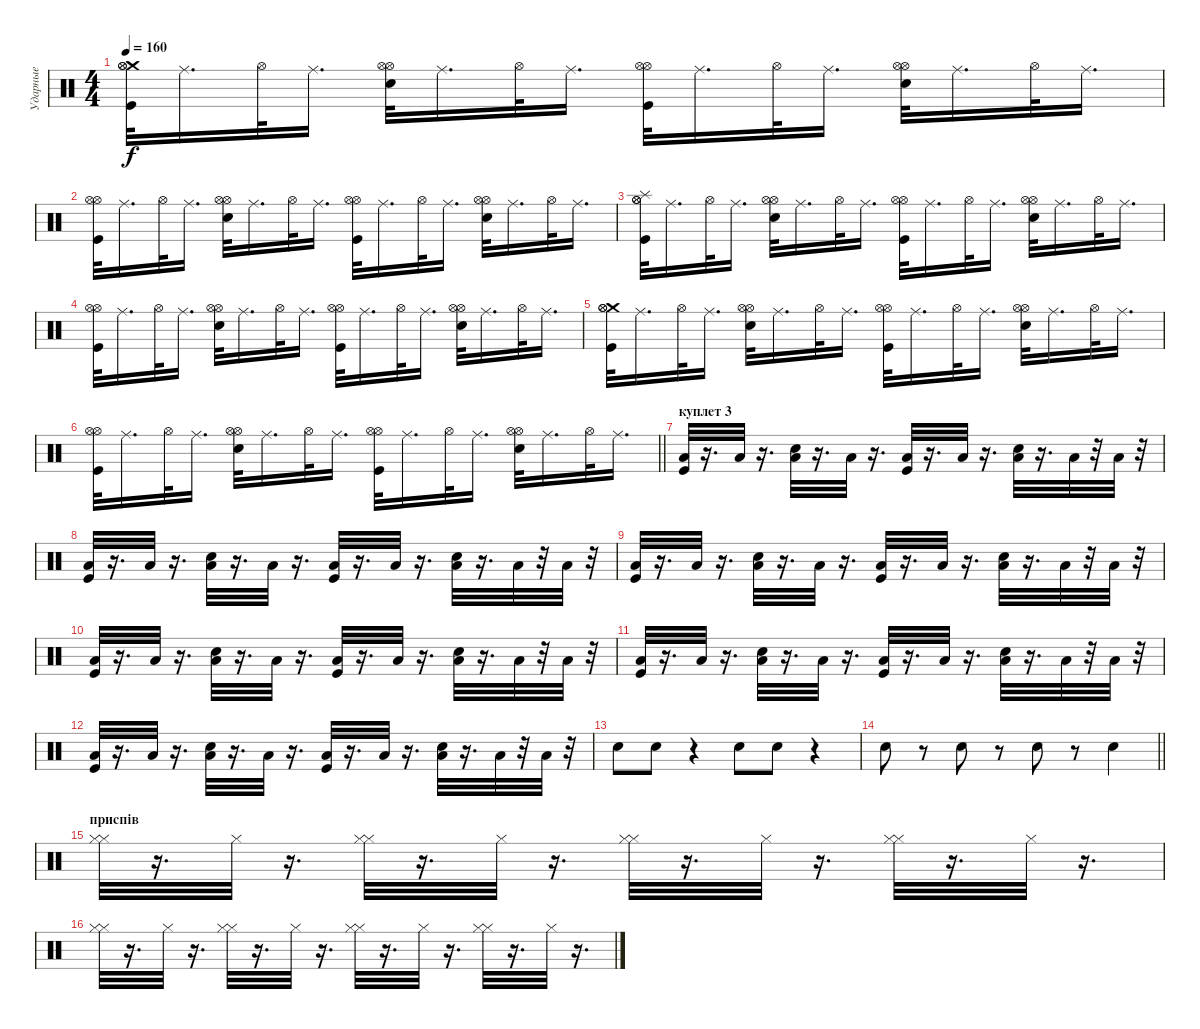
\track ("Ударные" "Ударные") {instrument percussion}
\staff {score}
\articulation defaults
\ts (4 4)
\tempo 160
\clef neutral
\ks c
("Crash medium (hit)" "Hi-Hat (open)" "Kick (hit)" "Hi-Hat (open)").32{dy f} "Ride (middle)".16{d} "Hi-Hat (open)".32 "Ride (middle)".16{d} ("Hi-Hat (open)" "Snare (hit) 2" "Hi-Hat (open)").32 "Ride (middle)".16{d} "Hi-Hat (open)".32 "Ride (middle)".16{d} ("Kick (hit)" "Hi-Hat (open)" "Hi-Hat (open)").32 "Ride (middle)".16{d} "Hi-Hat (open)".32 "Ride (middle)".16{d} ("Hi-Hat (open)" "Hi-Hat (open)" "Snare (hit) 2").32 "Ride (middle)".16{d} "Hi-Hat (open)".32 "Ride (middle)".16{d} |
("Kick (hit)" "Hi-Hat (open)" "Hi-Hat (open)").32 "Ride (middle)".16{d} "Hi-Hat (open)".32 "Ride (middle)".16{d} ("Snare (hit) 2" "Hi-Hat (open)" "Hi-Hat (open)").32 "Ride (middle)".16{d} "Hi-Hat (open)".32 "Ride (middle)".16{d} ("Kick (hit)" "Hi-Hat (open)" "Hi-Hat (open)").32 "Ride (middle)".16{d} "Hi-Hat (open)".32 "Ride (middle)".16{d} ("Hi-Hat (open)" "Snare (hit) 2" "Hi-Hat (open)").32 "Ride (middle)".16{d} "Hi-Hat (open)".32 "Ride (middle)".16{d} |
("Splash (hit)" "Hi-Hat (open)" "Kick (hit)" "Hi-Hat (open)").32 "Ride (middle)".16{d} "Hi-Hat (open)".32 "Ride (middle)".16{d} ("Hi-Hat (open)" "Hi-Hat (open)" "Snare (hit) 2").32 "Ride (middle)".16{d} "Hi-Hat (open)".32 "Ride (middle)".16{d} ("Hi-Hat (open)" "Hi-Hat (open)" "Kick (hit)").32 "Ride (middle)".16{d} "Hi-Hat (open)".32 "Ride (middle)".16{d} ("Snare (hit) 2" "Hi-Hat (open)" "Hi-Hat (open)").32 "Ride (middle)".16{d} "Hi-Hat (open)".32 "Ride (middle)".16{d} |
("Kick (hit)" "Hi-Hat (open)" "Hi-Hat (open)").32 "Ride (middle)".16{d} "Hi-Hat (open)".32 "Ride (middle)".16{d} ("Snare (hit) 2" "Hi-Hat (open)" "Hi-Hat (open)").32 "Ride (middle)".16{d} "Hi-Hat (open)".32 "Ride (middle)".16{d} ("Hi-Hat (open)" "Kick (hit)" "Hi-Hat (open)").32 "Ride (middle)".16{d} "Hi-Hat (open)".32 "Ride (middle)".16{d} ("Hi-Hat (open)" "Snare (hit) 2" "Hi-Hat (open)").32 "Ride (middle)".16{d} "Hi-Hat (open)".32 "Ride (middle)".16{d} |
("Crash medium (hit)" "Kick (hit)" "Hi-Hat (open)" "Hi-Hat (open)").32 "Ride (middle)".16{d} "Hi-Hat (open)".32 "Ride (middle)".16{d} ("Hi-Hat (open)" "Hi-Hat (open)" "Snare (hit) 2").32 "Ride (middle)".16{d} "Hi-Hat (open)".32 "Ride (middle)".16{d} ("Kick (hit)" "Hi-Hat (open)" "Hi-Hat (open)").32 "Ride (middle)".16{d} "Hi-Hat (open)".32 "Ride (middle)".16{d} ("Snare (hit) 2" "Hi-Hat (open)" "Hi-Hat (open)").32 "Ride (middle)".16{d} "Hi-Hat (open)".32 "Ride (middle)".16{d} |
\barLineRight lightlight
("Kick (hit)" "Hi-Hat (open)" "Hi-Hat (open)").32 "Ride (middle)".16{d} "Hi-Hat (open)".32 "Ride (middle)".16{d} ("Hi-Hat (open)" "Snare (hit) 2" "Hi-Hat (open)").32 "Ride (middle)".16{d} "Hi-Hat (open)".32 "Ride (middle)".16{d} ("Kick (hit)" "Hi-Hat (open)" "Hi-Hat (open)").32 "Ride (middle)".16{d} "Hi-Hat (open)".32 "Ride (middle)".16{d} ("Snare (hit) 2" "Hi-Hat (open)" "Hi-Hat (open)").32 "Ride (middle)".16{d} "Hi-Hat (open)".32 "Ride (middle)".16{d} |
\section ("" "куплет 3")
("Kick (hit)" "Low Floor Tom (hit)").32 r.16{d} "Low Floor Tom (hit)".32 r.16{d} ("Low Floor Tom (hit)" "Snare (hit) 2").32 r.16{d} "Low Floor Tom (hit)".32 r.16{d} ("Kick (hit)" "Low Floor Tom (hit)").32 r.16{d} "Low Floor Tom (hit)".32 r.16{d} ("Low Floor Tom (hit)" "Snare (hit) 2").32 r.16{d} "Low Floor Tom (hit)".32 r.32 "Low Floor Tom (hit)".32 r.32 |
("Kick (hit)" "Low Floor Tom (hit)").32 r.16{d} "Low Floor Tom (hit)".32 r.16{d} ("Low Floor Tom (hit)" "Snare (hit) 2").32 r.16{d} "Low Floor Tom (hit)".32 r.16{d} ("Low Floor Tom (hit)" "Kick (hit)").32 r.16{d} "Low Floor Tom (hit)".32 r.16{d} ("Snare (hit) 2" "Low Floor Tom (hit)").32 r.16{d} "Low Floor Tom (hit)".32 r.32 "Low Floor Tom (hit)".32 r.32 |
("Kick (hit)" "Low Floor Tom (hit)").32 r.16{d} "Low Floor Tom (hit)".32 r.16{d} ("Low Floor Tom (hit)" "Snare (hit) 2").32 r.16{d} "Low Floor Tom (hit)".32 r.16{d} ("Kick (hit)" "Low Floor Tom (hit)").32 r.16{d} "Low Floor Tom (hit)".32 r.16{d} ("Low Floor Tom (hit)" "Snare (hit) 2").32 r.16{d} "Low Floor Tom (hit)".32 r.32 "Low Floor Tom (hit)".32 r.32 |
("Kick (hit)" "Low Floor Tom (hit)").32 r.16{d} "Low Floor Tom (hit)".32 r.16{d} ("Low Floor Tom (hit)" "Snare (hit) 2").32 r.16{d} "Low Floor Tom (hit)".32 r.16{d} ("Low Floor Tom (hit)" "Kick (hit)").32 r.16{d} "Low Floor Tom (hit)".32 r.16{d} ("Snare (hit) 2" "Low Floor Tom (hit)").32 r.16{d} "Low Floor Tom (hit)".32 r.32 "Low Floor Tom (hit)".32 r.32 |
("Kick (hit)" "Low Floor Tom (hit)").32 r.16{d} "Low Floor Tom (hit)".32 r.16{d} ("Low Floor Tom (hit)" "Snare (hit) 2").32 r.16{d} "Low Floor Tom (hit)".32 r.16{d} ("Kick (hit)" "Low Floor Tom (hit)").32 r.16{d} "Low Floor Tom (hit)".32 r.16{d} ("Low Floor Tom (hit)" "Snare (hit) 2").32 r.16{d} "Low Floor Tom (hit)".32 r.32 "Low Floor Tom (hit)".32 r.32 |
("Kick (hit)" "Low Floor Tom (hit)").32 r.16{d} "Low Floor Tom (hit)".32 r.16{d} ("Low Floor Tom (hit)" "Snare (hit) 2").32 r.16{d} "Low Floor Tom (hit)".32 r.16{d} ("Low Floor Tom (hit)" "Kick (hit)").32 r.16{d} "Low Floor Tom (hit)".32 r.16{d} ("Snare (hit) 2" "Low Floor Tom (hit)").32 r.16{d} "Low Floor Tom (hit)".32 r.32 "Low Floor Tom (hit)".32 r.32 |
"Snare (hit) 2".8 "Snare (hit) 2".8 r.4 "Snare (hit) 2".8 "Snare (hit) 2".8 r.4 |
\barLineRight lightlight "Snare (hit) 2".8
r.8 "Snare (hit) 2".8 r.8 "Snare (hit) 2".8 r.8 "Snare (hit) 2".4 |
\section ("" "приспів")
("Hi-Hat (closed)" "Hi-Hat (closed)").32 r.16{d} "Hi-Hat (closed)".32 r.16{d} ("Hi-Hat (closed)" "Hi-Hat (closed)").32 r.16{d} "Hi-Hat (closed)".32 r.16{d} ("Hi-Hat (closed)" "Hi-Hat (closed)").32 r.16{d} "Hi-Hat (closed)".32 r.16{d} ("Hi-Hat (closed)" "Hi-Hat (closed)").32 r.16{d} "Hi-Hat (closed)".32 r.16{d} |
("Hi-Hat (closed)" "Hi-Hat (closed)").32 r.16{d} "Hi-Hat (closed)".32 r.16{d} ("Hi-Hat (closed)" "Hi-Hat (closed)").32 r.16{d} "Hi-Hat (closed)".32 r.16{d} ("Hi-Hat (closed)" "Hi-Hat (closed)").32 r.16{d} "Hi-Hat (closed)".32 r.16{d} ("Hi-Hat (closed)" "Hi-Hat (closed)").32 r.16{d} "Hi-Hat (closed)".32 r.16{d}
